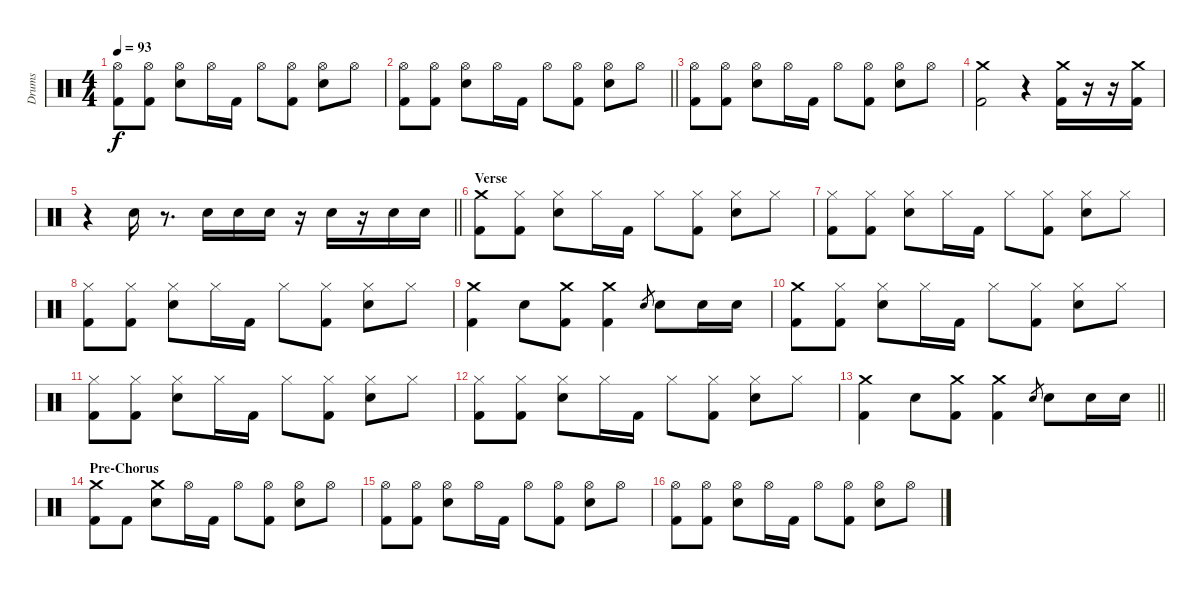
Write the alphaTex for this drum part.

\track ("Drums" "Drums") {instrument percussion}
\staff {score}
\articulation defaults
\ts (4 4)
\tempo 93
\clef neutral
\ks c
("Hi-Hat (open)" "Kick (hit) 2").8{dy f} ("Hi-Hat (open)" "Kick (hit) 2").8 ("Hi-Hat (open)" "Snare (hit) 2").8 "Hi-Hat (open)".16 "Kick (hit) 2".16 "Hi-Hat (open)".8 ("Hi-Hat (open)" "Kick (hit) 2").8 ("Hi-Hat (open)" "Snare (hit) 2").8 "Hi-Hat (open)".8 |
\barLineRight lightlight
("Hi-Hat (open)" "Kick (hit) 2").8 ("Hi-Hat (open)" "Kick (hit) 2").8 ("Hi-Hat (open)" "Snare (hit) 2").8 "Hi-Hat (open)".16 "Kick (hit) 2".16 "Hi-Hat (open)".8 ("Hi-Hat (open)" "Kick (hit) 2").8 ("Hi-Hat (open)" "Snare (hit) 2").8 "Hi-Hat (open)".8 |
("Hi-Hat (open)" "Kick (hit) 2").8 ("Hi-Hat (open)" "Kick (hit) 2").8 ("Hi-Hat (open)" "Snare (hit) 2").8 "Hi-Hat (open)".16 "Kick (hit) 2".16 "Hi-Hat (open)".8 ("Hi-Hat (open)" "Kick (hit) 2").8 ("Hi-Hat (open)" "Snare (hit) 2").8 "Hi-Hat (open)".8 |
("Crash medium (hit)" "Kick (hit) 2").2 r.4 ("Crash medium (hit)" "Kick (hit) 2").16 r.16 r.16 ("Crash medium (hit)" "Kick (hit) 2").16 |
\barLineRight lightlight
r.4 "Snare (hit) 2".16 r.8{d} "Snare (hit) 2".16 "Snare (hit) 2".16 "Snare (hit) 2".16 r.16 "Snare (hit) 2".16 r.16 "Snare (hit) 2".16 "Snare (hit) 2".16 |
\section ("" "Verse")
("Crash medium (hit)" "Kick (hit) 2").8 ("Hi-Hat (closed)" "Kick (hit) 2").8 ("Hi-Hat (closed)" "Snare (hit) 2").8 "Hi-Hat (closed)".16 "Kick (hit) 2".16 "Hi-Hat (closed)".8 ("Hi-Hat (closed)" "Kick (hit) 2").8 ("Hi-Hat (closed)" "Snare (hit) 2").8 "Hi-Hat (closed)".8 |
("Hi-Hat (closed)" "Kick (hit) 2").8 ("Hi-Hat (closed)" "Kick (hit) 2").8 ("Hi-Hat (closed)" "Snare (hit) 2").8 "Hi-Hat (closed)".16 "Kick (hit) 2".16 "Hi-Hat (closed)".8 ("Hi-Hat (closed)" "Kick (hit) 2").8 ("Hi-Hat (closed)" "Snare (hit) 2").8 "Hi-Hat (closed)".8 |
("Hi-Hat (closed)" "Kick (hit) 2").8 ("Hi-Hat (closed)" "Kick (hit) 2").8 ("Hi-Hat (closed)" "Snare (hit) 2").8 "Hi-Hat (closed)".16 "Kick (hit) 2".16 "Hi-Hat (closed)".8 ("Hi-Hat (closed)" "Kick (hit) 2").8 ("Hi-Hat (closed)" "Snare (hit) 2").8 "Hi-Hat (closed)".8 |
("Crash medium (hit)" "Kick (hit) 2").4 "Snare (hit) 2".8 ("Crash medium (hit)" "Kick (hit) 2").8 ("Crash medium (hit)" "Kick (hit) 2").4 "Snare (hit) 2".8{gr} "Snare (hit) 2".8 "Snare (hit) 2".16 "Snare (hit) 2".16 |
("Crash medium (hit)" "Kick (hit) 2").8 ("Hi-Hat (closed)" "Kick (hit) 2").8 ("Hi-Hat (closed)" "Snare (hit) 2").8 "Hi-Hat (closed)".16 "Kick (hit) 2".16 "Hi-Hat (closed)".8 ("Hi-Hat (closed)" "Kick (hit) 2").8 ("Hi-Hat (closed)" "Snare (hit) 2").8 "Hi-Hat (closed)".8 |
("Hi-Hat (closed)" "Kick (hit) 2").8 ("Hi-Hat (closed)" "Kick (hit) 2").8 ("Hi-Hat (closed)" "Snare (hit) 2").8 "Hi-Hat (closed)".16 "Kick (hit) 2".16 "Hi-Hat (closed)".8 ("Hi-Hat (closed)" "Kick (hit) 2").8 ("Hi-Hat (closed)" "Snare (hit) 2").8 "Hi-Hat (closed)".8 |
("Hi-Hat (closed)" "Kick (hit) 2").8 ("Hi-Hat (closed)" "Kick (hit) 2").8 ("Hi-Hat (closed)" "Snare (hit) 2").8 "Hi-Hat (closed)".16 "Kick (hit) 2".16 "Hi-Hat (closed)".8 ("Hi-Hat (closed)" "Kick (hit) 2").8 ("Hi-Hat (closed)" "Snare (hit) 2").8 "Hi-Hat (closed)".8 |
\barLineRight lightlight
("Crash medium (hit)" "Kick (hit) 2").4 "Snare (hit) 2".8 ("Crash medium (hit)" "Kick (hit) 2").8 ("Crash medium (hit)" "Kick (hit) 2").4 "Snare (hit) 2".8{gr} "Snare (hit) 2".8 "Snare (hit) 2".16 "Snare (hit) 2".16 |
\section ("" "Pre-Chorus")
("Crash medium (hit)" "Kick (hit) 2").8 "Kick (hit) 2".8 ("Crash medium (hit)" "Snare (hit) 2").8 "Hi-Hat (open)".16 "Kick (hit) 2".16 "Hi-Hat (open)".8 ("Hi-Hat (open)" "Kick (hit) 2").8 ("Hi-Hat (open)" "Snare (hit) 2").8 "Hi-Hat (open)".8 |
("Hi-Hat (open)" "Kick (hit) 2").8 ("Hi-Hat (open)" "Kick (hit) 2").8 ("Hi-Hat (open)" "Snare (hit) 2").8 "Hi-Hat (open)".16 "Kick (hit) 2".16 "Hi-Hat (open)".8 ("Hi-Hat (open)" "Kick (hit) 2").8 ("Hi-Hat (open)" "Snare (hit) 2").8 "Hi-Hat (open)".8 |
("Hi-Hat (open)" "Kick (hit) 2").8 ("Hi-Hat (open)" "Kick (hit) 2").8 ("Hi-Hat (open)" "Snare (hit) 2").8 "Hi-Hat (open)".16 "Kick (hit) 2".16 "Hi-Hat (open)".8 ("Hi-Hat (open)" "Kick (hit) 2").8 ("Hi-Hat (open)" "Snare (hit) 2").8 "Hi-Hat (open)".8
